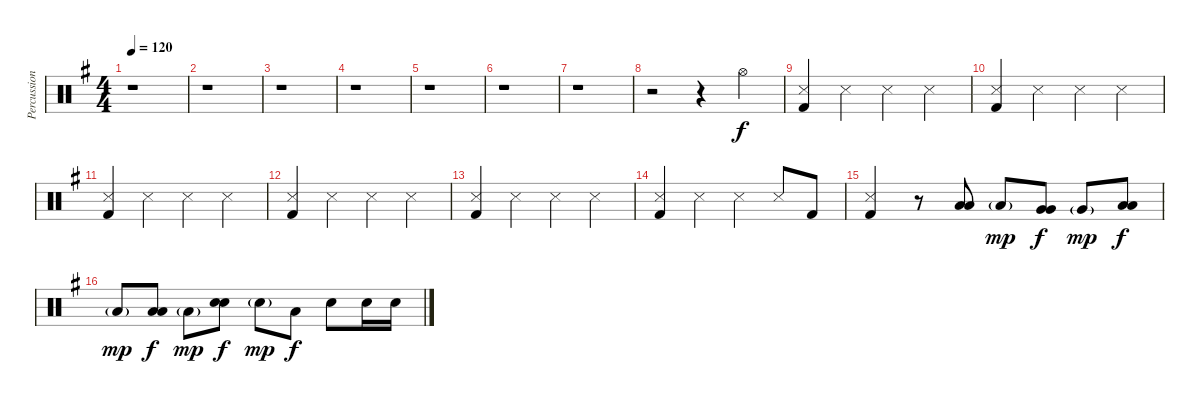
\track ("Percussion" "Percussion") {instrument percussion}
\staff {score}
\articulation defaults
\ts (4 4)
\tempo 120
\clef neutral
\ks g
r.1{dy mp} |
r.1 |
r.1 |
r.1 |
r.1 |
r.1 |
r.1 |
r.2 r.4 "Hi-Hat (open)".4{dy f} |
("Snare (side stick) 3" "Kick (hit) 2").4 "Snare (side stick) 3".4 "Snare (side stick) 3".4 "Snare (side stick) 3".4 |
("Snare (side stick) 3" "Kick (hit) 2").4 "Snare (side stick) 3".4 "Snare (side stick) 3".4 "Snare (side stick) 3".4 |
("Snare (side stick) 3" "Kick (hit) 2").4 "Snare (side stick) 3".4 "Snare (side stick) 3".4 "Snare (side stick) 3".4 |
("Snare (side stick) 3" "Kick (hit) 2").4 "Snare (side stick) 3".4 "Snare (side stick) 3".4 "Snare (side stick) 3".4 |
("Snare (side stick) 3" "Kick (hit) 2").4 "Snare (side stick) 3".4 "Snare (side stick) 3".4 "Snare (side stick) 3".4 |
("Snare (side stick) 3" "Kick (hit) 2").4 "Snare (side stick) 3".4 "Snare (side stick) 3".4 "Snare (side stick) 3".8 "Kick (hit) 2".8 |
("Snare (side stick) 3" "Kick (hit) 2").4 r.8 ("Low Tom (hit)" "Low Tom (hit)").8{bd 60} "Low Tom (hit)"{g}.8{dy mp} ("Very Low Tom (hit)" "Very Low Tom (hit)").8{bd 60 dy f} "Very Low Tom (hit)"{g}.8{dy mp} ("Low Floor Tom (hit)" "Low Floor Tom (hit)").8{bd 60 dy f} |
"Low Floor Tom (hit)"{g}.8{dy mp} ("Low Tom (hit)" "Low Tom (hit)").8{bd 60 dy f} "Low Tom (hit)"{g}.8{dy mp} ("Snare (hit) 2" "Snare (hit) 2").8{bd 60 dy f} "Snare (hit) 2"{g}.8{dy mp} "Low Tom (hit)".8{dy f} "Snare (hit) 2".8 "Snare (hit) 2".16 "Snare (hit) 2".16
